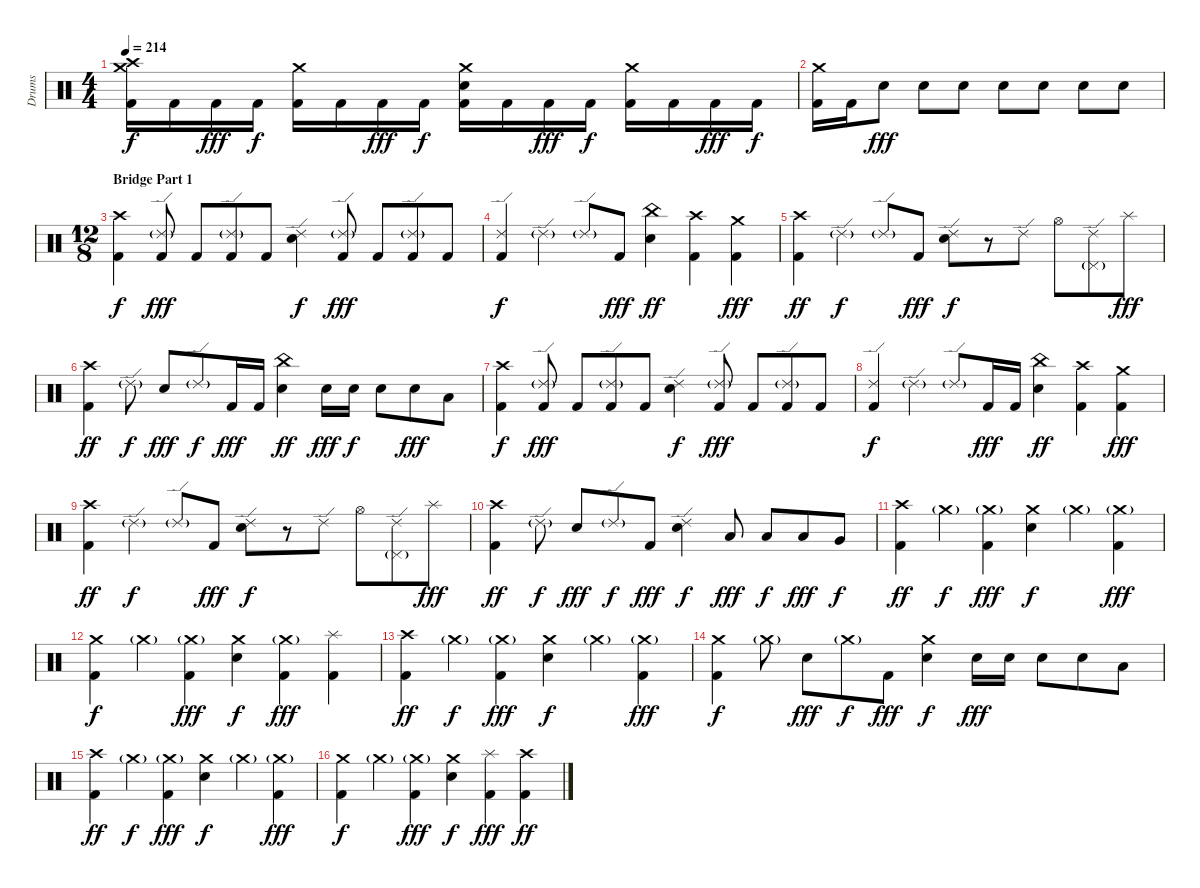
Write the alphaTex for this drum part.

\track ("Drums" "Drums") {instrument percussion}
\staff {score}
\articulation defaults
\ts (4 4)
\tempo 214
\clef neutral
\ks c
("Crash medium (hit)" "Crash high (hit)" "Kick (hit) 2").16{dy f} "Kick (hit) 2".16 "Kick (hit) 2".16{dy fff} "Kick (hit) 2".16{dy f} ("Crash medium (hit)" "Kick (hit) 2").16 "Kick (hit) 2".16 "Kick (hit) 2".16{dy fff} "Kick (hit) 2".16{dy f} ("Crash medium (hit)" "Snare (hit) 2" "Kick (hit) 2").16 "Kick (hit) 2".16 "Kick (hit) 2".16{dy fff} "Kick (hit) 2".16{dy f} ("Crash medium (hit)" "Kick (hit) 2").16 "Kick (hit) 2".16 "Kick (hit) 2".16{dy fff} "Kick (hit) 2".16{dy f} |
("Crash medium (hit)" "Kick (hit) 2").16 "Kick (hit) 2".16 "Snare (hit) 2".8{dy fff} "Snare (hit) 2".8 "Snare (hit) 2".8 "Snare (hit) 2".8 "Snare (hit) 2".8 "Snare (hit) 2".8 "Snare (hit) 2".8 |
\ts (12 8)
\section ("" "Bridge Part 1")
("Crash high (hit)" "Kick (hit) 2").4{dy f} ("Ride (edge) 2"{g} "Kick (hit) 2").8{dy fff} "Kick (hit) 2".8 ("Ride (edge) 2"{g} "Kick (hit) 2").8 "Kick (hit) 2".8 ("Ride (edge) 2" "Snare (hit) 2").4{dy f} ("Ride (edge) 2"{g} "Kick (hit) 2").8{dy fff} "Kick (hit) 2".8 ("Ride (edge) 2"{g} "Kick (hit) 2").8 "Kick (hit) 2".8 |
("Ride (edge) 2" "Kick (hit) 2").4{dy f} "Ride (edge) 2"{g}.4 "Ride (edge) 2"{g}.8 "Kick (hit) 2".8{dy fff} ("China (hit)" "Snare (hit) 2").4{dy ff} ("Crash high (hit)" "Kick (hit) 2").4 ("Crash medium (hit)" "Kick (hit) 2").4{dy fff} |
("Crash high (hit)" "Kick (hit) 2").4{dy ff} "Ride (edge) 2"{g}.4{dy f} "Ride (edge) 2"{g}.8 "Kick (hit) 2".8{dy fff} ("Ride (edge) 2" "Snare (hit) 2").8{dy f} r.8 "Ride (edge) 2".8 "Hi-Hat (open)".8 ("Ride (edge) 2" "Pedal Hi-Hat (hit)"{g}).8 "Splash (hit)".8{dy fff} |
("Crash high (hit)" "Kick (hit) 2").4{dy ff} "Ride (edge) 2"{g}.8{dy f} "Snare (hit) 2".8{dy fff} "Ride (edge) 2"{g}.8{dy f} "Kick (hit) 2".16{dy fff} "Kick (hit) 2".16 ("China (hit)" "Snare (hit) 2").4{dy ff} "Snare (hit) 2".16{dy fff} "Snare (hit) 2".16{dy f} "Snare (hit) 2".8 "Snare (hit) 2".8{dy fff} "Low Tom (hit)".8 |
("Crash high (hit)" "Kick (hit) 2").4{dy f} ("Ride (edge) 2"{g} "Kick (hit) 2").8{dy fff} "Kick (hit) 2".8 ("Ride (edge) 2"{g} "Kick (hit) 2").8 "Kick (hit) 2".8 ("Ride (edge) 2" "Snare (hit) 2").4{dy f} ("Ride (edge) 2"{g} "Kick (hit) 2").8{dy fff} "Kick (hit) 2".8 ("Ride (edge) 2"{g} "Kick (hit) 2").8 "Kick (hit) 2".8 |
("Ride (edge) 2" "Kick (hit) 2").4{dy f} "Ride (edge) 2"{g}.4 "Ride (edge) 2"{g}.8 "Kick (hit) 2".16{dy fff} "Kick (hit) 2".16 ("China (hit)" "Snare (hit) 2").4{dy ff} ("Crash high (hit)" "Kick (hit) 2").4 ("Crash medium (hit)" "Kick (hit) 2").4{dy fff} |
("Crash high (hit)" "Kick (hit) 2").4{dy ff} "Ride (edge) 2"{g}.4{dy f} "Ride (edge) 2"{g}.8 "Kick (hit) 2".8{dy fff} ("Ride (edge) 2" "Snare (hit) 2").8{dy f} r.8 "Ride (edge) 2".8 "Hi-Hat (open)".8 ("Ride (edge) 2" "Pedal Hi-Hat (hit)"{g}).8 "Splash (hit)".8{dy fff} |
("Crash high (hit)" "Kick (hit) 2").4{dy ff} "Ride (edge) 2"{g}.8{dy f} "Snare (hit) 2".8{dy fff} "Ride (edge) 2"{g}.8{dy f} "Kick (hit) 2".8{dy fff} ("Ride (edge) 2" "Snare (hit) 2").4{dy f} "Low Tom (hit)".8{dy fff} "Low Tom (hit)".8{dy f} "Low Tom (hit)".8{dy fff} "Very Low Tom (hit)".8{dy f} |
("Crash high (hit)" "Kick (hit) 2").4{dy ff} "Crash medium (hit)"{g}.4{dy f} ("Crash medium (hit)"{g} "Kick (hit) 2").4{dy fff} ("Crash medium (hit)" "Snare (hit) 2").4{dy f} "Crash medium (hit)"{g}.4 ("Crash medium (hit)"{g} "Kick (hit) 2").4{dy fff} |
("Crash medium (hit)" "Kick (hit) 2").4{dy f} "Crash medium (hit)"{g}.4 ("Crash medium (hit)"{g} "Kick (hit) 2").4{dy fff} ("Crash medium (hit)" "Snare (hit) 2").4{dy f} ("Crash medium (hit)"{g} "Kick (hit) 2").4{dy fff} ("Splash (hit)" "Kick (hit) 2").4 |
("Crash high (hit)" "Kick (hit) 2").4{dy ff} "Crash medium (hit)"{g}.4{dy f} ("Crash medium (hit)"{g} "Kick (hit) 2").4{dy fff} ("Crash medium (hit)" "Snare (hit) 2").4{dy f} "Crash medium (hit)"{g}.4 ("Crash medium (hit)"{g} "Kick (hit) 2").4{dy fff} |
("Crash medium (hit)" "Kick (hit) 2").4{dy f} "Crash medium (hit)"{g}.8 "Snare (hit) 2".8{dy fff} "Crash medium (hit)"{g}.8{dy f} "Kick (hit) 2".8{dy fff} ("Crash medium (hit)" "Snare (hit) 2").4{dy f} "Snare (hit) 2".16{dy fff} "Snare (hit) 2".16 "Snare (hit) 2".8 "Snare (hit) 2".8 "Low Tom (hit)".8 |
("Crash high (hit)" "Kick (hit) 2").4{dy ff} "Crash medium (hit)"{g}.4{dy f} ("Crash medium (hit)"{g} "Kick (hit) 2").4{dy fff} ("Crash medium (hit)" "Snare (hit) 2").4{dy f} "Crash medium (hit)"{g}.4 ("Crash medium (hit)"{g} "Kick (hit) 2").4{dy fff} |
("Crash medium (hit)" "Kick (hit) 2").4{dy f} "Crash medium (hit)"{g}.4 ("Crash medium (hit)"{g} "Kick (hit) 2").4{dy fff} ("Crash medium (hit)" "Snare (hit) 2").4{dy f} ("Splash (hit)" "Kick (hit) 2").4{dy fff} ("Crash high (hit)" "Kick (hit) 2").4{dy ff}
